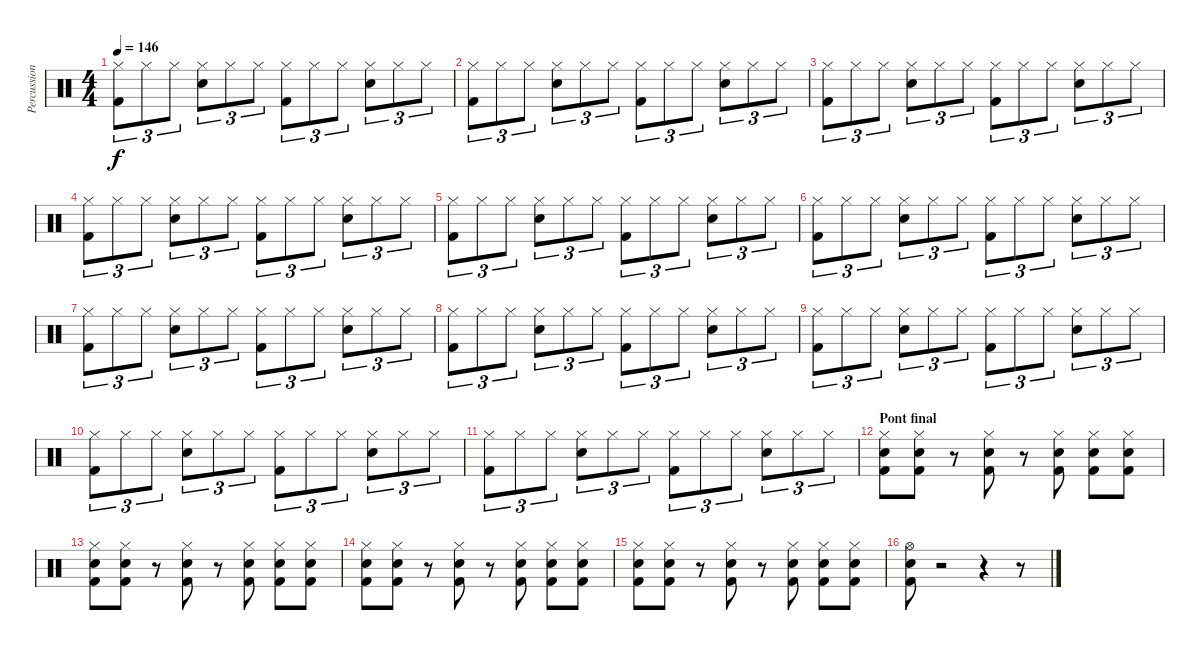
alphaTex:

\track ("Percussions" "Percussion") {instrument percussion}
\staff {score}
\articulation defaults
\ts (4 4)
\tempo 146
\clef neutral
\ks c
("Hi-Hat (closed)" "Kick (hit) 2").8{tu (3 2) dy f} "Hi-Hat (closed)".8{tu (3 2)} "Hi-Hat (closed)".8{tu (3 2)} ("Hi-Hat (closed)" "Electric Snare (hit)").8{tu (3 2)} "Hi-Hat (closed)".8{tu (3 2)} "Hi-Hat (closed)".8{tu (3 2)} ("Hi-Hat (closed)" "Kick (hit) 2").8{tu (3 2)} "Hi-Hat (closed)".8{tu (3 2)} "Hi-Hat (closed)".8{tu (3 2)} ("Hi-Hat (closed)" "Electric Snare (hit)").8{tu (3 2)} "Hi-Hat (closed)".8{tu (3 2)} "Hi-Hat (closed)".8{tu (3 2)} |
("Hi-Hat (closed)" "Kick (hit) 2").8{tu (3 2)} "Hi-Hat (closed)".8{tu (3 2)} "Hi-Hat (closed)".8{tu (3 2)} ("Hi-Hat (closed)" "Electric Snare (hit)").8{tu (3 2)} "Hi-Hat (closed)".8{tu (3 2)} "Hi-Hat (closed)".8{tu (3 2)} ("Hi-Hat (closed)" "Kick (hit) 2").8{tu (3 2)} "Hi-Hat (closed)".8{tu (3 2)} "Hi-Hat (closed)".8{tu (3 2)} ("Hi-Hat (closed)" "Electric Snare (hit)").8{tu (3 2)} "Hi-Hat (closed)".8{tu (3 2)} "Hi-Hat (closed)".8{tu (3 2)} |
("Hi-Hat (closed)" "Kick (hit) 2").8{tu (3 2)} "Hi-Hat (closed)".8{tu (3 2)} "Hi-Hat (closed)".8{tu (3 2)} ("Hi-Hat (closed)" "Electric Snare (hit)").8{tu (3 2)} "Hi-Hat (closed)".8{tu (3 2)} "Hi-Hat (closed)".8{tu (3 2)} ("Hi-Hat (closed)" "Kick (hit) 2").8{tu (3 2)} "Hi-Hat (closed)".8{tu (3 2)} "Hi-Hat (closed)".8{tu (3 2)} ("Hi-Hat (closed)" "Electric Snare (hit)").8{tu (3 2)} "Hi-Hat (closed)".8{tu (3 2)} "Hi-Hat (closed)".8{tu (3 2)} |
("Hi-Hat (closed)" "Kick (hit) 2").8{tu (3 2)} "Hi-Hat (closed)".8{tu (3 2)} "Hi-Hat (closed)".8{tu (3 2)} ("Hi-Hat (closed)" "Electric Snare (hit)").8{tu (3 2)} "Hi-Hat (closed)".8{tu (3 2)} "Hi-Hat (closed)".8{tu (3 2)} ("Hi-Hat (closed)" "Kick (hit) 2").8{tu (3 2)} "Hi-Hat (closed)".8{tu (3 2)} "Hi-Hat (closed)".8{tu (3 2)} ("Hi-Hat (closed)" "Electric Snare (hit)").8{tu (3 2)} "Hi-Hat (closed)".8{tu (3 2)} "Hi-Hat (closed)".8{tu (3 2)} |
("Hi-Hat (closed)" "Kick (hit) 2").8{tu (3 2)} "Hi-Hat (closed)".8{tu (3 2)} "Hi-Hat (closed)".8{tu (3 2)} ("Hi-Hat (closed)" "Electric Snare (hit)").8{tu (3 2)} "Hi-Hat (closed)".8{tu (3 2)} "Hi-Hat (closed)".8{tu (3 2)} ("Hi-Hat (closed)" "Kick (hit) 2").8{tu (3 2)} "Hi-Hat (closed)".8{tu (3 2)} "Hi-Hat (closed)".8{tu (3 2)} ("Hi-Hat (closed)" "Electric Snare (hit)").8{tu (3 2)} "Hi-Hat (closed)".8{tu (3 2)} "Hi-Hat (closed)".8{tu (3 2)} |
("Hi-Hat (closed)" "Kick (hit) 2").8{tu (3 2)} "Hi-Hat (closed)".8{tu (3 2)} "Hi-Hat (closed)".8{tu (3 2)} ("Hi-Hat (closed)" "Electric Snare (hit)").8{tu (3 2)} "Hi-Hat (closed)".8{tu (3 2)} "Hi-Hat (closed)".8{tu (3 2)} ("Hi-Hat (closed)" "Kick (hit) 2").8{tu (3 2)} "Hi-Hat (closed)".8{tu (3 2)} "Hi-Hat (closed)".8{tu (3 2)} ("Hi-Hat (closed)" "Electric Snare (hit)").8{tu (3 2)} "Hi-Hat (closed)".8{tu (3 2)} "Hi-Hat (closed)".8{tu (3 2)} |
("Hi-Hat (closed)" "Kick (hit) 2").8{tu (3 2)} "Hi-Hat (closed)".8{tu (3 2)} "Hi-Hat (closed)".8{tu (3 2)} ("Hi-Hat (closed)" "Electric Snare (hit)").8{tu (3 2)} "Hi-Hat (closed)".8{tu (3 2)} "Hi-Hat (closed)".8{tu (3 2)} ("Hi-Hat (closed)" "Kick (hit) 2").8{tu (3 2)} "Hi-Hat (closed)".8{tu (3 2)} "Hi-Hat (closed)".8{tu (3 2)} ("Hi-Hat (closed)" "Electric Snare (hit)").8{tu (3 2)} "Hi-Hat (closed)".8{tu (3 2)} "Hi-Hat (closed)".8{tu (3 2)} |
("Hi-Hat (closed)" "Kick (hit) 2").8{tu (3 2)} "Hi-Hat (closed)".8{tu (3 2)} "Hi-Hat (closed)".8{tu (3 2)} ("Hi-Hat (closed)" "Electric Snare (hit)").8{tu (3 2)} "Hi-Hat (closed)".8{tu (3 2)} "Hi-Hat (closed)".8{tu (3 2)} ("Hi-Hat (closed)" "Kick (hit) 2").8{tu (3 2)} "Hi-Hat (closed)".8{tu (3 2)} "Hi-Hat (closed)".8{tu (3 2)} ("Hi-Hat (closed)" "Electric Snare (hit)").8{tu (3 2)} "Hi-Hat (closed)".8{tu (3 2)} "Hi-Hat (closed)".8{tu (3 2)} |
("Hi-Hat (closed)" "Kick (hit) 2").8{tu (3 2)} "Hi-Hat (closed)".8{tu (3 2)} "Hi-Hat (closed)".8{tu (3 2)} ("Hi-Hat (closed)" "Electric Snare (hit)").8{tu (3 2)} "Hi-Hat (closed)".8{tu (3 2)} "Hi-Hat (closed)".8{tu (3 2)} ("Hi-Hat (closed)" "Kick (hit) 2").8{tu (3 2)} "Hi-Hat (closed)".8{tu (3 2)} "Hi-Hat (closed)".8{tu (3 2)} ("Hi-Hat (closed)" "Electric Snare (hit)").8{tu (3 2)} "Hi-Hat (closed)".8{tu (3 2)} "Hi-Hat (closed)".8{tu (3 2)} |
("Hi-Hat (closed)" "Kick (hit) 2").8{tu (3 2)} "Hi-Hat (closed)".8{tu (3 2)} "Hi-Hat (closed)".8{tu (3 2)} ("Hi-Hat (closed)" "Electric Snare (hit)").8{tu (3 2)} "Hi-Hat (closed)".8{tu (3 2)} "Hi-Hat (closed)".8{tu (3 2)} ("Hi-Hat (closed)" "Kick (hit) 2").8{tu (3 2)} "Hi-Hat (closed)".8{tu (3 2)} "Hi-Hat (closed)".8{tu (3 2)} ("Hi-Hat (closed)" "Electric Snare (hit)").8{tu (3 2)} "Hi-Hat (closed)".8{tu (3 2)} "Hi-Hat (closed)".8{tu (3 2)} |
("Hi-Hat (closed)" "Kick (hit) 2").8{tu (3 2)} "Hi-Hat (closed)".8{tu (3 2)} "Hi-Hat (closed)".8{tu (3 2)} ("Hi-Hat (closed)" "Electric Snare (hit)").8{tu (3 2)} "Hi-Hat (closed)".8{tu (3 2)} "Hi-Hat (closed)".8{tu (3 2)} ("Hi-Hat (closed)" "Kick (hit) 2").8{tu (3 2)} "Hi-Hat (closed)".8{tu (3 2)} "Hi-Hat (closed)".8{tu (3 2)} ("Hi-Hat (closed)" "Electric Snare (hit)").8{tu (3 2)} "Hi-Hat (closed)".8{tu (3 2)} "Hi-Hat (closed)".8{tu (3 2)} |
\section ("" "Pont final")
("Hi-Hat (closed)" "Electric Snare (hit)" "Kick (hit) 2").8 ("Hi-Hat (closed)" "Electric Snare (hit)" "Kick (hit) 2").8 r.8 ("Hi-Hat (closed)" "Electric Snare (hit)" "Kick (hit) 2").8 r.8 ("Hi-Hat (closed)" "Electric Snare (hit)" "Kick (hit) 2").8 ("Hi-Hat (closed)" "Electric Snare (hit)" "Kick (hit) 2").8 ("Hi-Hat (closed)" "Electric Snare (hit)" "Kick (hit) 2").8 |
("Hi-Hat (closed)" "Electric Snare (hit)" "Kick (hit) 2").8 ("Hi-Hat (closed)" "Electric Snare (hit)" "Kick (hit) 2").8 r.8 ("Hi-Hat (closed)" "Electric Snare (hit)" "Kick (hit) 2").8 r.8 ("Hi-Hat (closed)" "Electric Snare (hit)" "Kick (hit) 2").8 ("Hi-Hat (closed)" "Electric Snare (hit)" "Kick (hit) 2").8 ("Hi-Hat (closed)" "Electric Snare (hit)" "Kick (hit) 2").8 |
("Hi-Hat (closed)" "Electric Snare (hit)" "Kick (hit) 2").8 ("Hi-Hat (closed)" "Electric Snare (hit)" "Kick (hit) 2").8 r.8 ("Hi-Hat (closed)" "Electric Snare (hit)" "Kick (hit) 2").8 r.8 ("Hi-Hat (closed)" "Electric Snare (hit)" "Kick (hit) 2").8 ("Hi-Hat (closed)" "Electric Snare (hit)" "Kick (hit) 2").8 ("Hi-Hat (closed)" "Electric Snare (hit)" "Kick (hit) 2").8 |
("Hi-Hat (closed)" "Electric Snare (hit)" "Kick (hit) 2").8 ("Hi-Hat (closed)" "Electric Snare (hit)" "Kick (hit) 2").8 r.8 ("Hi-Hat (closed)" "Electric Snare (hit)" "Kick (hit) 2").8 r.8 ("Hi-Hat (closed)" "Electric Snare (hit)" "Kick (hit) 2").8 ("Hi-Hat (closed)" "Electric Snare (hit)" "Kick (hit) 2").8 ("Hi-Hat (closed)" "Electric Snare (hit)" "Kick (hit) 2").8 |
("Hi-Hat (open)" "Electric Snare (hit)" "Kick (hit) 2").8 r.2 r.4 r.8
